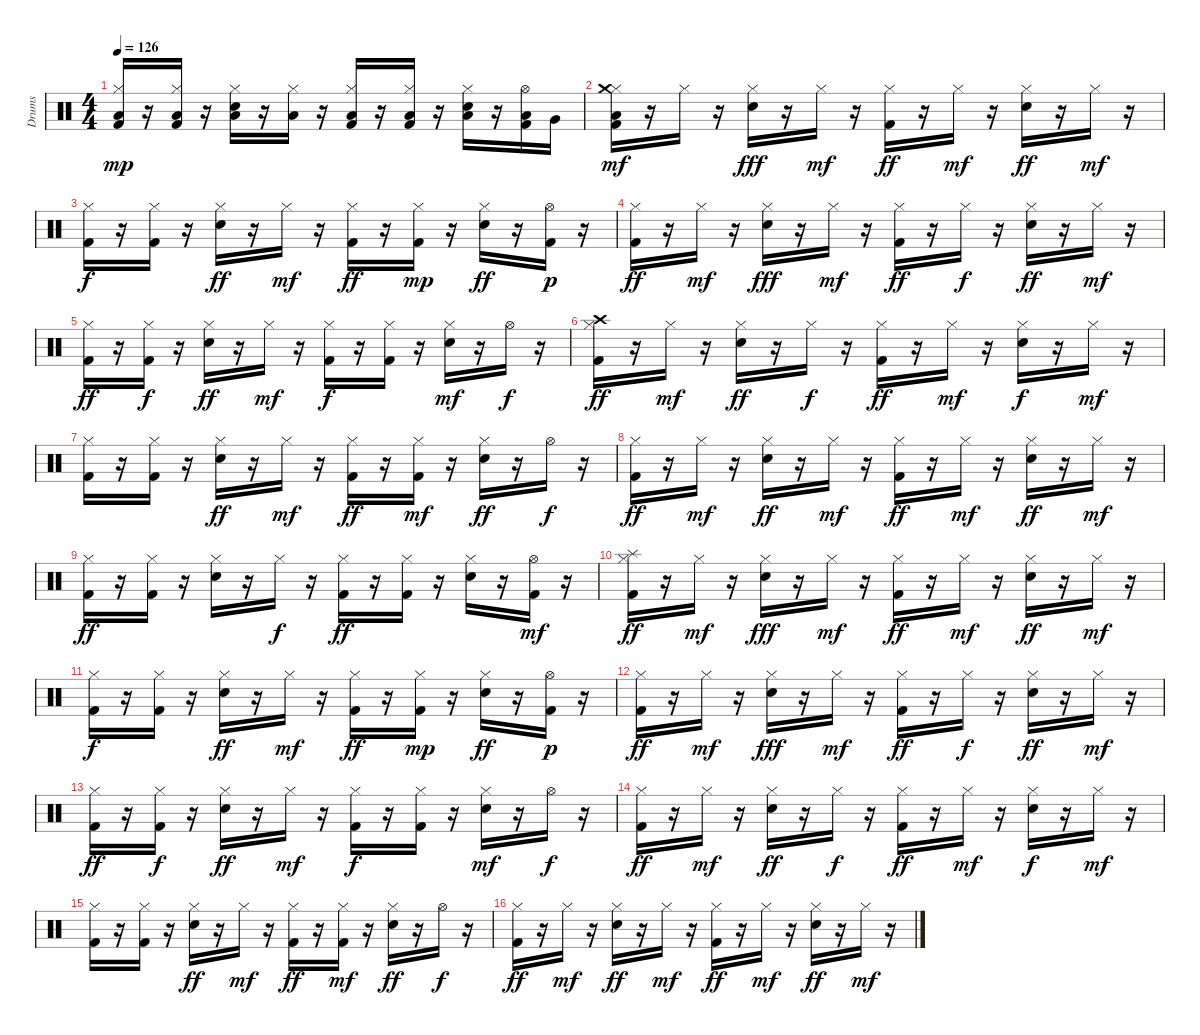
\track ("Drums" "Drums") {instrument percussion}
\staff {score}
\articulation defaults
\ts (4 4)
\tempo 126
\clef neutral
\ks c
("Kick (hit) 2" "Hi-Hat (closed)" "Low Floor Tom (hit)").16{dy mp} r.16 ("Hi-Hat (closed)" "Kick (hit) 2" "Low Floor Tom (hit)").16 r.16 ("Hi-Hat (closed)" "Snare (hit) 2" "Low Floor Tom (hit)").16 r.16 ("Hi-Hat (closed)" "Low Floor Tom (hit)").16 r.16 ("Kick (hit) 2" "Hi-Hat (closed)" "Low Floor Tom (hit)").16 r.16 ("Hi-Hat (closed)" "Kick (hit) 2" "Low Floor Tom (hit)").16 r.16 ("Hi-Hat (closed)" "Snare (hit) 2" "Low Floor Tom (hit)").16 r.16 ("Hi-Hat (open)" "Kick (hit) 2" "Low Floor Tom (hit)").16 "Very Low Tom (hit)".16 |
("Kick (hit) 2" "Hi-Hat (closed)" "Low Floor Tom (hit)" "Crash medium (hit)").16{dy mf} r.16 "Hi-Hat (closed)".16 r.16 ("Hi-Hat (closed)" "Snare (hit) 2").16{dy fff} r.16 "Hi-Hat (closed)".16{dy mf} r.16 ("Kick (hit) 2" "Hi-Hat (closed)").16{dy ff} r.16 "Hi-Hat (closed)".16{dy mf} r.16 ("Hi-Hat (closed)" "Snare (hit) 2").16{dy ff} r.16 "Hi-Hat (closed)".16{dy mf} r.16 |
("Kick (hit) 2" "Hi-Hat (closed)").16{dy f} r.16 ("Hi-Hat (closed)" "Kick (hit) 2").16 r.16 ("Hi-Hat (closed)" "Snare (hit) 2").16{dy ff} r.16 "Hi-Hat (closed)".16{dy mf} r.16 ("Hi-Hat (closed)" "Kick (hit) 2").16{dy ff} r.16 ("Kick (hit) 2" "Hi-Hat (closed)").16{dy mp} r.16 ("Hi-Hat (closed)" "Snare (hit) 2").16{dy ff} r.16 ("Hi-Hat (open)" "Kick (hit) 2").16{dy p} r.16 |
("Hi-Hat (closed)" "Kick (hit) 2").16{dy ff} r.16 "Hi-Hat (closed)".16{dy mf} r.16 ("Hi-Hat (closed)" "Snare (hit) 2").16{dy fff} r.16 "Hi-Hat (closed)".16{dy mf} r.16 ("Kick (hit) 2" "Hi-Hat (closed)").16{dy ff} r.16 "Hi-Hat (closed)".16{dy f} r.16 ("Snare (hit) 2" "Hi-Hat (closed)").16{dy ff} r.16 "Hi-Hat (closed)".16{dy mf} r.16 |
("Hi-Hat (closed)" "Kick (hit) 2").16{dy ff} r.16 ("Kick (hit) 2" "Hi-Hat (closed)").16{dy f} r.16 ("Hi-Hat (closed)" "Snare (hit) 2").16{dy ff} r.16 "Hi-Hat (closed)".16{dy mf} r.16 ("Kick (hit) 2" "Hi-Hat (closed)").16{dy f} r.16 ("Hi-Hat (closed)" "Kick (hit) 2").16 r.16 ("Snare (hit) 2" "Hi-Hat (closed)").16{dy mf} r.16 "Hi-Hat (open)".16{dy f} r.16 |
("Hi-Hat (closed)" "Kick (hit) 2" "Crash high (hit)").16{dy ff} r.16 "Hi-Hat (closed)".16{dy mf} r.16 ("Snare (hit) 2" "Hi-Hat (closed)").16{dy ff} r.16 "Hi-Hat (closed)".16{dy f} r.16 ("Kick (hit) 2" "Hi-Hat (closed)").16{dy ff} r.16 "Hi-Hat (closed)".16{dy mf} r.16 ("Snare (hit) 2" "Hi-Hat (closed)").16{dy f} r.16 "Hi-Hat (closed)".16{dy mf} r.16 |
("Kick (hit) 2" "Hi-Hat (closed)").16 r.16 ("Hi-Hat (closed)" "Kick (hit) 2").16 r.16 ("Hi-Hat (closed)" "Snare (hit) 2").16{dy ff} r.16 "Hi-Hat (closed)".16{dy mf} r.16 ("Hi-Hat (closed)" "Kick (hit) 2").16{dy ff} r.16 ("Hi-Hat (closed)" "Kick (hit) 2").16{dy mf} r.16 ("Hi-Hat (closed)" "Snare (hit) 2").16{dy ff} r.16 "Hi-Hat (open)".16{dy f} r.16 |
("Hi-Hat (closed)" "Kick (hit) 2").16{dy ff} r.16 "Hi-Hat (closed)".16{dy mf} r.16 ("Hi-Hat (closed)" "Snare (hit) 2").16{dy ff} r.16 "Hi-Hat (closed)".16{dy mf} r.16 ("Kick (hit) 2" "Hi-Hat (closed)").16{dy ff} r.16 "Hi-Hat (closed)".16{dy mf} r.16 ("Hi-Hat (closed)" "Snare (hit) 2").16{dy ff} r.16 "Hi-Hat (closed)".16{dy mf} r.16 |
("Kick (hit) 2" "Hi-Hat (closed)").16{dy ff} r.16 ("Hi-Hat (closed)" "Kick (hit) 2").16 r.16 ("Hi-Hat (closed)" "Snare (hit) 2").16 r.16 "Hi-Hat (closed)".16{dy f} r.16 ("Kick (hit) 2" "Hi-Hat (closed)").16{dy ff} r.16 ("Hi-Hat (closed)" "Kick (hit) 2").16 r.16 ("Hi-Hat (closed)" "Snare (hit) 2").16 r.16 ("Hi-Hat (open)" "Kick (hit) 2").16{dy mf} r.16 |
("Kick (hit) 2" "Hi-Hat (closed)" "Splash (hit)").16{dy ff} r.16 "Hi-Hat (closed)".16{dy mf} r.16 ("Hi-Hat (closed)" "Snare (hit) 2").16{dy fff} r.16 "Hi-Hat (closed)".16{dy mf} r.16 ("Kick (hit) 2" "Hi-Hat (closed)").16{dy ff} r.16 "Hi-Hat (closed)".16{dy mf} r.16 ("Hi-Hat (closed)" "Snare (hit) 2").16{dy ff} r.16 "Hi-Hat (closed)".16{dy mf} r.16 |
("Kick (hit) 2" "Hi-Hat (closed)").16{dy f} r.16 ("Hi-Hat (closed)" "Kick (hit) 2").16 r.16 ("Hi-Hat (closed)" "Snare (hit) 2").16{dy ff} r.16 "Hi-Hat (closed)".16{dy mf} r.16 ("Hi-Hat (closed)" "Kick (hit) 2").16{dy ff} r.16 ("Kick (hit) 2" "Hi-Hat (closed)").16{dy mp} r.16 ("Hi-Hat (closed)" "Snare (hit) 2").16{dy ff} r.16 ("Hi-Hat (open)" "Kick (hit) 2").16{dy p} r.16 |
("Hi-Hat (closed)" "Kick (hit) 2").16{dy ff} r.16 "Hi-Hat (closed)".16{dy mf} r.16 ("Hi-Hat (closed)" "Snare (hit) 2").16{dy fff} r.16 "Hi-Hat (closed)".16{dy mf} r.16 ("Kick (hit) 2" "Hi-Hat (closed)").16{dy ff} r.16 "Hi-Hat (closed)".16{dy f} r.16 ("Snare (hit) 2" "Hi-Hat (closed)").16{dy ff} r.16 "Hi-Hat (closed)".16{dy mf} r.16 |
("Hi-Hat (closed)" "Kick (hit) 2").16{dy ff} r.16 ("Kick (hit) 2" "Hi-Hat (closed)").16{dy f} r.16 ("Hi-Hat (closed)" "Snare (hit) 2").16{dy ff} r.16 "Hi-Hat (closed)".16{dy mf} r.16 ("Kick (hit) 2" "Hi-Hat (closed)").16{dy f} r.16 ("Hi-Hat (closed)" "Kick (hit) 2").16 r.16 ("Snare (hit) 2" "Hi-Hat (closed)").16{dy mf} r.16 "Hi-Hat (open)".16{dy f} r.16 |
("Hi-Hat (closed)" "Kick (hit) 2").16{dy ff} r.16 "Hi-Hat (closed)".16{dy mf} r.16 ("Snare (hit) 2" "Hi-Hat (closed)").16{dy ff} r.16 "Hi-Hat (closed)".16{dy f} r.16 ("Kick (hit) 2" "Hi-Hat (closed)").16{dy ff} r.16 "Hi-Hat (closed)".16{dy mf} r.16 ("Snare (hit) 2" "Hi-Hat (closed)").16{dy f} r.16 "Hi-Hat (closed)".16{dy mf} r.16 |
("Kick (hit) 2" "Hi-Hat (closed)").16 r.16 ("Hi-Hat (closed)" "Kick (hit) 2").16 r.16 ("Hi-Hat (closed)" "Snare (hit) 2").16{dy ff} r.16 "Hi-Hat (closed)".16{dy mf} r.16 ("Hi-Hat (closed)" "Kick (hit) 2").16{dy ff} r.16 ("Hi-Hat (closed)" "Kick (hit) 2").16{dy mf} r.16 ("Hi-Hat (closed)" "Snare (hit) 2").16{dy ff} r.16 "Hi-Hat (open)".16{dy f} r.16 |
("Hi-Hat (closed)" "Kick (hit) 2").16{dy ff} r.16 "Hi-Hat (closed)".16{dy mf} r.16 ("Hi-Hat (closed)" "Snare (hit) 2").16{dy ff} r.16 "Hi-Hat (closed)".16{dy mf} r.16 ("Kick (hit) 2" "Hi-Hat (closed)").16{dy ff} r.16 "Hi-Hat (closed)".16{dy mf} r.16 ("Hi-Hat (closed)" "Snare (hit) 2").16{dy ff} r.16 "Hi-Hat (closed)".16{dy mf} r.16
